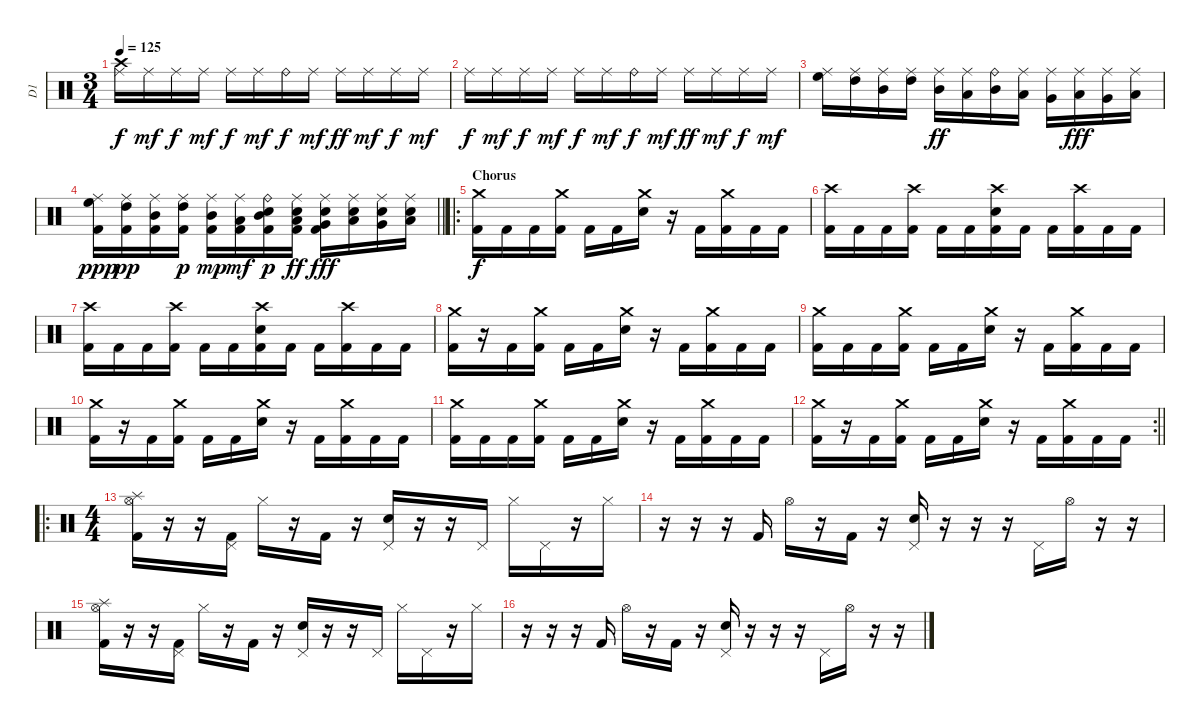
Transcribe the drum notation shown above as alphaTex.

\track ("D1" "D1") {instrument percussion}
\staff {score}
\articulation defaults
\ts (3 4)
\tempo 125
\clef neutral
\ks c
("Ride (middle)" "Crash high (hit)").16{dy f} "Ride (middle)".16{dy mf} "Ride (middle)".16{dy f} "Ride (middle)".16{dy mf} "Ride (middle)".16{dy f} "Ride (middle)".16{dy mf} "Ride (bell)".16{dy f} "Ride (middle)".16{dy mf} "Ride (middle)".16{dy ff} "Ride (middle)".16{dy mf} "Ride (middle)".16{dy f} "Ride (middle)".16{dy mf} |
"Ride (middle)".16{dy f} "Ride (middle)".16{dy mf} "Ride (middle)".16{dy f} "Ride (middle)".16{dy mf} "Ride (middle)".16{dy f} "Ride (middle)".16{dy mf} "Ride (bell)".16{dy f} "Ride (middle)".16{dy mf} "Ride (middle)".16{dy ff} "Ride (middle)".16{dy mf} "Ride (middle)".16{dy f} "Ride (middle)".16{dy mf} |
("Ride (middle)" "High Floor Tom (hit)").16 ("Ride (middle)" "High Tom (hit)").16 ("Ride (middle)" "Mid Tom (hit)").16 ("Ride (middle)" "High Tom (hit)").16 ("Ride (middle)" "Mid Tom (hit)").16{dy ff} ("Ride (middle)" "Low Tom (hit)").16 ("Ride (bell)" "Mid Tom (hit)").16 ("Ride (middle)" "Low Tom (hit)").16 ("Ride (middle)" "Very Low Tom (hit)").16 ("Ride (middle)" "Low Tom (hit)").16{dy fff} ("Ride (middle)" "Very Low Tom (hit)").16 ("Ride (middle)" "Low Floor Tom (hit)").16 |
\barLineRight lightlight
("Ride (middle)" "High Floor Tom (hit)" "Kick (hit) 2").16{dy ppp} ("Ride (middle)" "High Tom (hit)" "Kick (hit) 2").16{dy pp} ("Ride (middle)" "Mid Tom (hit)" "Kick (hit) 2").16 ("Ride (middle)" "High Tom (hit)" "Kick (hit) 2").16{dy p} ("Ride (middle)" "Mid Tom (hit)" "Kick (hit) 2").16{dy mp} ("Ride (middle)" "Low Tom (hit)" "Kick (hit) 2").16{dy mf} ("Ride (bell)" "Mid Tom (hit)" "Snare (hit) 2" "Kick (hit) 2").16{dy p} ("Ride (middle)" "Low Tom (hit)" "Snare (hit) 2" "Kick (hit) 2").16{dy ff} ("Ride (middle)" "Very Low Tom (hit)" "Snare (hit) 2" "Kick (hit) 2").16{dy fff} ("Ride (middle)" "Low Tom (hit)" "Snare (hit) 2").16 ("Ride (middle)" "Very Low Tom (hit)" "Snare (hit) 2").16 ("Ride (middle)" "Low Floor Tom (hit)" "Snare (hit) 2").16 |
\ro
\section ("" "Chorus")
("Crash medium (hit)" "Kick (hit) 2").16{dy f} "Kick (hit) 2".16 "Kick (hit) 2".16 ("Crash medium (hit)" "Kick (hit) 2").16 "Kick (hit) 2".16 "Kick (hit) 2".16 ("Crash medium (hit)" "Snare (hit) 2").16 r.16 "Kick (hit) 2".16 ("Crash medium (hit)" "Kick (hit) 2").16 "Kick (hit) 2".16 "Kick (hit) 2".16 |
("Crash high (hit)" "Kick (hit) 2").16 "Kick (hit) 2".16 "Kick (hit) 2".16 ("Crash high (hit)" "Kick (hit) 2").16 "Kick (hit) 2".16 "Kick (hit) 2".16 ("Crash high (hit)" "Snare (hit) 2" "Kick (hit) 2").16 "Kick (hit) 2".16 "Kick (hit) 2".16 ("Crash high (hit)" "Kick (hit) 2").16 "Kick (hit) 2".16 "Kick (hit) 2".16 |
("Crash high (hit)" "Kick (hit) 2").16 "Kick (hit) 2".16 "Kick (hit) 2".16 ("Crash high (hit)" "Kick (hit) 2").16 "Kick (hit) 2".16 "Kick (hit) 2".16 ("Crash high (hit)" "Snare (hit) 2" "Kick (hit) 2").16 "Kick (hit) 2".16 "Kick (hit) 2".16 ("Crash high (hit)" "Kick (hit) 2").16 "Kick (hit) 2".16 "Kick (hit) 2".16 |
("Crash medium (hit)" "Kick (hit) 2").16 r.16 "Kick (hit) 2".16 ("Crash medium (hit)" "Kick (hit) 2").16 "Kick (hit) 2".16 "Kick (hit) 2".16 ("Crash medium (hit)" "Snare (hit) 2").16 r.16 "Kick (hit) 2".16 ("Crash medium (hit)" "Kick (hit) 2").16 "Kick (hit) 2".16 "Kick (hit) 2".16 |
("Crash medium (hit)" "Kick (hit) 2").16 "Kick (hit) 2".16 "Kick (hit) 2".16 ("Crash medium (hit)" "Kick (hit) 2").16 "Kick (hit) 2".16 "Kick (hit) 2".16 ("Crash medium (hit)" "Snare (hit) 2").16 r.16 "Kick (hit) 2".16 ("Crash medium (hit)" "Kick (hit) 2").16 "Kick (hit) 2".16 "Kick (hit) 2".16 |
("Crash medium (hit)" "Kick (hit) 2").16 r.16 "Kick (hit) 2".16 ("Crash medium (hit)" "Kick (hit) 2").16 "Kick (hit) 2".16 "Kick (hit) 2".16 ("Crash medium (hit)" "Snare (hit) 2").16 r.16 "Kick (hit) 2".16 ("Crash medium (hit)" "Kick (hit) 2").16 "Kick (hit) 2".16 "Kick (hit) 2".16 |
("Crash medium (hit)" "Kick (hit) 2").16 "Kick (hit) 2".16 "Kick (hit) 2".16 ("Crash medium (hit)" "Kick (hit) 2").16 "Kick (hit) 2".16 "Kick (hit) 2".16 ("Crash medium (hit)" "Snare (hit) 2").16 r.16 "Kick (hit) 2".16 ("Crash medium (hit)" "Kick (hit) 2").16 "Kick (hit) 2".16 "Kick (hit) 2".16 |
\rc 2
\barLineRight lightlight
("Crash medium (hit)" "Kick (hit) 2").16 r.16 "Kick (hit) 2".16 ("Crash medium (hit)" "Kick (hit) 2").16 "Kick (hit) 2".16 "Kick (hit) 2".16 ("Crash medium (hit)" "Snare (hit) 2").16 r.16 "Kick (hit) 2".16 ("Crash medium (hit)" "Kick (hit) 2").16 "Kick (hit) 2".16 "Kick (hit) 2".16 |
\ro
\ts (4 4)
\section ("" "")
("Splash (hit)" "Hi-Hat (open)" "Kick (hit) 2").16 r.16 r.16 ("Pedal Hi-Hat (hit)" "Kick (hit) 2").16 "Hi-Hat (closed)".16 r.16 "Kick (hit) 2".16 r.16 ("Pedal Hi-Hat (hit)" "Snare (hit) 2").16 r.16 r.16 "Pedal Hi-Hat (hit)".16 "Hi-Hat (closed)".16 "Pedal Hi-Hat (hit)".16 r.16 "Hi-Hat (closed)".16 |
r.16 r.16 r.16 "Kick (hit) 2".16 "Hi-Hat (open)".16 r.16 "Kick (hit) 2".16 r.16 ("Pedal Hi-Hat (hit)" "Snare (hit) 2").16 r.16 r.16 r.16 "Pedal Hi-Hat (hit)".16 "Hi-Hat (open)".16 r.16 r.16 |
("Splash (hit)" "Hi-Hat (open)" "Kick (hit) 2").16 r.16 r.16 ("Pedal Hi-Hat (hit)" "Kick (hit) 2").16 "Hi-Hat (closed)".16 r.16 "Kick (hit) 2".16 r.16 ("Pedal Hi-Hat (hit)" "Snare (hit) 2").16 r.16 r.16 "Pedal Hi-Hat (hit)".16 "Hi-Hat (closed)".16 "Pedal Hi-Hat (hit)".16 r.16 "Hi-Hat (closed)".16 |
r.16 r.16 r.16 "Kick (hit) 2".16 "Hi-Hat (open)".16 r.16 "Kick (hit) 2".16 r.16 ("Pedal Hi-Hat (hit)" "Snare (hit) 2").16 r.16 r.16 r.16 "Pedal Hi-Hat (hit)".16 "Hi-Hat (open)".16 r.16 r.16
